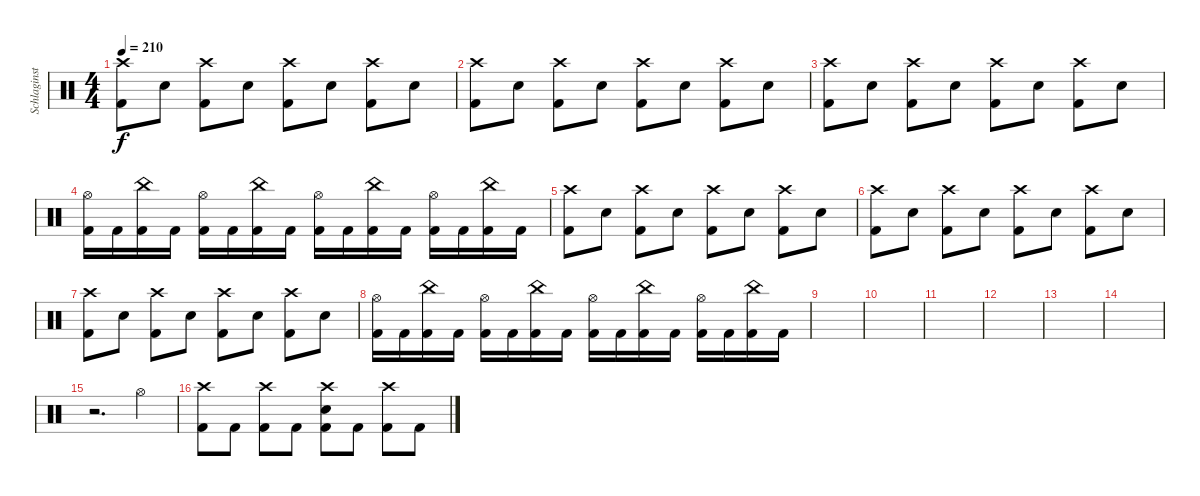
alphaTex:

\track ("Schlaginstrumente - Auswahl" "Schlaginst") {instrument percussion}
\staff {score}
\articulation defaults
\ts (4 4)
\tempo 210
\clef neutral
\ks c
("Crash high (hit)" "Kick (hit) 2").8{dy f} "Snare (hit) 2".8 ("Crash high (hit)" "Kick (hit) 2").8 "Snare (hit) 2".8 ("Crash high (hit)" "Kick (hit) 2").8 "Snare (hit) 2".8 ("Crash high (hit)" "Kick (hit) 2").8 "Snare (hit) 2".8 |
("Crash high (hit)" "Kick (hit) 2").8 "Snare (hit) 2".8 ("Crash high (hit)" "Kick (hit) 2").8 "Snare (hit) 2".8 ("Crash high (hit)" "Kick (hit) 2").8 "Snare (hit) 2".8 ("Crash high (hit)" "Kick (hit) 2").8 "Snare (hit) 2".8 |
("Crash high (hit)" "Kick (hit) 2").8 "Snare (hit) 2".8 ("Crash high (hit)" "Kick (hit) 2").8 "Snare (hit) 2".8 ("Crash high (hit)" "Kick (hit) 2").8 "Snare (hit) 2".8 ("Crash high (hit)" "Kick (hit) 2").8 "Snare (hit) 2".8 |
("Hi-Hat (open)" "Kick (hit) 2").16 "Kick (hit) 2".16 ("China (hit)" "Kick (hit) 2").16 "Kick (hit) 2".16 ("Hi-Hat (open)" "Kick (hit) 2").16 "Kick (hit) 2".16 ("China (hit)" "Kick (hit) 2").16 "Kick (hit) 2".16 ("Hi-Hat (open)" "Kick (hit) 2").16 "Kick (hit) 2".16 ("China (hit)" "Kick (hit) 2").16 "Kick (hit) 2".16 ("Hi-Hat (open)" "Kick (hit) 2").16 "Kick (hit) 2".16 ("China (hit)" "Kick (hit) 2").16 "Kick (hit) 2".16 |
("Crash high (hit)" "Kick (hit) 2").8 "Snare (hit) 2".8 ("Crash high (hit)" "Kick (hit) 2").8 "Snare (hit) 2".8 ("Crash high (hit)" "Kick (hit) 2").8 "Snare (hit) 2".8 ("Crash high (hit)" "Kick (hit) 2").8 "Snare (hit) 2".8 |
("Crash high (hit)" "Kick (hit) 2").8 "Snare (hit) 2".8 ("Crash high (hit)" "Kick (hit) 2").8 "Snare (hit) 2".8 ("Crash high (hit)" "Kick (hit) 2").8 "Snare (hit) 2".8 ("Crash high (hit)" "Kick (hit) 2").8 "Snare (hit) 2".8 |
("Crash high (hit)" "Kick (hit) 2").8 "Snare (hit) 2".8 ("Crash high (hit)" "Kick (hit) 2").8 "Snare (hit) 2".8 ("Crash high (hit)" "Kick (hit) 2").8 "Snare (hit) 2".8 ("Crash high (hit)" "Kick (hit) 2").8 "Snare (hit) 2".8 |
("Hi-Hat (open)" "Kick (hit) 2").16 "Kick (hit) 2".16 ("China (hit)" "Kick (hit) 2").16 "Kick (hit) 2".16 ("Hi-Hat (open)" "Kick (hit) 2").16 "Kick (hit) 2".16 ("China (hit)" "Kick (hit) 2").16 "Kick (hit) 2".16 ("Hi-Hat (open)" "Kick (hit) 2").16 "Kick (hit) 2".16 ("China (hit)" "Kick (hit) 2").16 "Kick (hit) 2".16 ("Hi-Hat (open)" "Kick (hit) 2").16 "Kick (hit) 2".16 ("China (hit)" "Kick (hit) 2").16 "Kick (hit) 2".16 |
|
|
|
|
|
|
r.2{d} "Hi-Hat (open)".4 |
("Crash high (hit)" "Kick (hit) 2").8 "Kick (hit) 2".8 ("Crash high (hit)" "Kick (hit) 2").8 "Kick (hit) 2".8 ("Crash high (hit)" "Snare (hit) 2" "Kick (hit) 2").8 "Kick (hit) 2".8 ("Crash high (hit)" "Kick (hit) 2").8 "Kick (hit) 2".8
